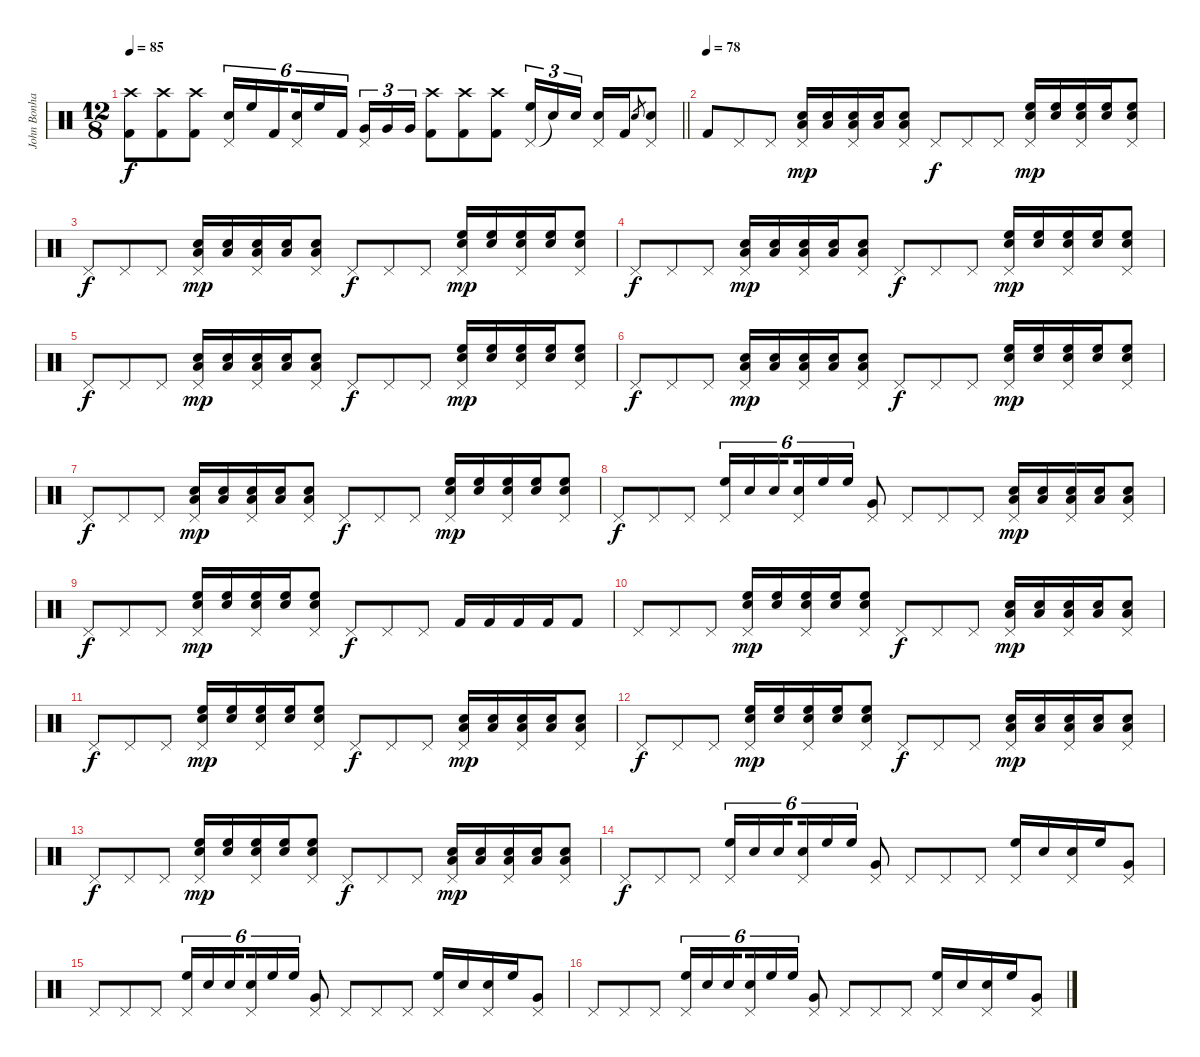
\track ("John Bonham - Drums" "John Bonha") {instrument percussion}
\staff {score}
\articulation defaults
\ts (12 8)
\tempo 85
\clef neutral
\barLineRight lightlight
\ks c
("Crash high (hit)" "Kick (hit) 2").8{dy f} ("Crash high (hit)" "Kick (hit) 2").8 ("Crash high (hit)" "Kick (hit) 2").8 ("Pedal Hi-Hat (hit)" "Snare (hit) 2").16{tu (6 4)} "High Floor Tom (hit)".16{tu (6 4)} "Kick (hit) 2".16{tu (6 4) beam splitsecondary} ("Pedal Hi-Hat (hit)" "Snare (hit) 2").16{tu (6 4)} "High Floor Tom (hit)".16{tu (6 4)} "Kick (hit) 2".16{tu (6 4) beam splitsecondary} ("Pedal Hi-Hat (hit)" "Very Low Tom (hit)").16{tu (3 2)} "Very Low Tom (hit)".16{tu (3 2)} "Very Low Tom (hit)".16{tu (3 2)} ("Crash high (hit)" "Kick (hit) 2").8 ("Crash high (hit)" "Kick (hit) 2").8 ("Crash high (hit)" "Kick (hit) 2").8 ("Pedal Hi-Hat (hit)" "High Floor Tom (hit)").16{tu (3 2)} "Snare (hit)"{t}.16{tu (3 2)} "Snare (hit) 2".16{tu (3 2) beam splitsecondary} ("Pedal Hi-Hat (hit)" "Snare (hit) 2").16 "Kick (hit) 2".16 "Snare (hit) 2".8{gr} ("Pedal Hi-Hat (hit)" "Snare (hit) 2").8 |
\tempo (78)
"Kick (hit) 2".8{volume 10} "Pedal Hi-Hat (hit)".8 "Pedal Hi-Hat (hit)".8 ("Pedal Hi-Hat (hit)" "Low Floor Tom (hit)" "Snare (hit) 2").16{dy mp} ("Low Floor Tom (hit)" "Snare (hit) 2").16 ("Pedal Hi-Hat (hit)" "Low Floor Tom (hit)" "Snare (hit) 2").16 ("Low Floor Tom (hit)" "Snare (hit) 2").16 ("Pedal Hi-Hat (hit)" "Low Floor Tom (hit)" "Snare (hit) 2").8 "Pedal Hi-Hat (hit)".8{dy f} "Pedal Hi-Hat (hit)".8 "Pedal Hi-Hat (hit)".8 ("Pedal Hi-Hat (hit)" "High Floor Tom (hit)" "Snare (hit) 2").16{dy mp} ("High Floor Tom (hit)" "Snare (hit) 2").16 ("Pedal Hi-Hat (hit)" "High Floor Tom (hit)" "Snare (hit) 2").16 ("High Floor Tom (hit)" "Snare (hit) 2").16 ("Pedal Hi-Hat (hit)" "High Floor Tom (hit)" "Snare (hit) 2").8 |
"Pedal Hi-Hat (hit)".8{dy f} "Pedal Hi-Hat (hit)".8 "Pedal Hi-Hat (hit)".8 ("Pedal Hi-Hat (hit)" "Low Floor Tom (hit)" "Snare (hit) 2").16{dy mp} ("Low Floor Tom (hit)" "Snare (hit) 2").16 ("Pedal Hi-Hat (hit)" "Low Floor Tom (hit)" "Snare (hit) 2").16 ("Low Floor Tom (hit)" "Snare (hit) 2").16 ("Pedal Hi-Hat (hit)" "Low Floor Tom (hit)" "Snare (hit) 2").8 "Pedal Hi-Hat (hit)".8{dy f} "Pedal Hi-Hat (hit)".8 "Pedal Hi-Hat (hit)".8 ("Pedal Hi-Hat (hit)" "High Floor Tom (hit)" "Snare (hit) 2").16{dy mp} ("High Floor Tom (hit)" "Snare (hit) 2").16 ("Pedal Hi-Hat (hit)" "High Floor Tom (hit)" "Snare (hit) 2").16 ("High Floor Tom (hit)" "Snare (hit) 2").16 ("Pedal Hi-Hat (hit)" "High Floor Tom (hit)" "Snare (hit) 2").8 |
"Pedal Hi-Hat (hit)".8{dy f} "Pedal Hi-Hat (hit)".8 "Pedal Hi-Hat (hit)".8 ("Pedal Hi-Hat (hit)" "Low Floor Tom (hit)" "Snare (hit) 2").16{dy mp} ("Low Floor Tom (hit)" "Snare (hit) 2").16 ("Pedal Hi-Hat (hit)" "Low Floor Tom (hit)" "Snare (hit) 2").16 ("Low Floor Tom (hit)" "Snare (hit) 2").16 ("Pedal Hi-Hat (hit)" "Low Floor Tom (hit)" "Snare (hit) 2").8 "Pedal Hi-Hat (hit)".8{dy f} "Pedal Hi-Hat (hit)".8 "Pedal Hi-Hat (hit)".8 ("Pedal Hi-Hat (hit)" "High Floor Tom (hit)" "Snare (hit) 2").16{dy mp} ("High Floor Tom (hit)" "Snare (hit) 2").16 ("Pedal Hi-Hat (hit)" "High Floor Tom (hit)" "Snare (hit) 2").16 ("High Floor Tom (hit)" "Snare (hit) 2").16 ("Pedal Hi-Hat (hit)" "High Floor Tom (hit)" "Snare (hit) 2").8 |
"Pedal Hi-Hat (hit)".8{dy f} "Pedal Hi-Hat (hit)".8 "Pedal Hi-Hat (hit)".8 ("Pedal Hi-Hat (hit)" "Low Floor Tom (hit)" "Snare (hit) 2").16{dy mp} ("Low Floor Tom (hit)" "Snare (hit) 2").16 ("Pedal Hi-Hat (hit)" "Low Floor Tom (hit)" "Snare (hit) 2").16 ("Low Floor Tom (hit)" "Snare (hit) 2").16 ("Pedal Hi-Hat (hit)" "Low Floor Tom (hit)" "Snare (hit) 2").8 "Pedal Hi-Hat (hit)".8{dy f} "Pedal Hi-Hat (hit)".8 "Pedal Hi-Hat (hit)".8 ("Pedal Hi-Hat (hit)" "High Floor Tom (hit)" "Snare (hit) 2").16{dy mp} ("High Floor Tom (hit)" "Snare (hit) 2").16 ("Pedal Hi-Hat (hit)" "High Floor Tom (hit)" "Snare (hit) 2").16 ("High Floor Tom (hit)" "Snare (hit) 2").16 ("Pedal Hi-Hat (hit)" "High Floor Tom (hit)" "Snare (hit) 2").8 |
"Pedal Hi-Hat (hit)".8{dy f} "Pedal Hi-Hat (hit)".8 "Pedal Hi-Hat (hit)".8 ("Pedal Hi-Hat (hit)" "Low Floor Tom (hit)" "Snare (hit) 2").16{dy mp} ("Low Floor Tom (hit)" "Snare (hit) 2").16 ("Pedal Hi-Hat (hit)" "Low Floor Tom (hit)" "Snare (hit) 2").16 ("Low Floor Tom (hit)" "Snare (hit) 2").16 ("Pedal Hi-Hat (hit)" "Low Floor Tom (hit)" "Snare (hit) 2").8 "Pedal Hi-Hat (hit)".8{dy f} "Pedal Hi-Hat (hit)".8 "Pedal Hi-Hat (hit)".8 ("Pedal Hi-Hat (hit)" "High Floor Tom (hit)" "Snare (hit) 2").16{dy mp} ("High Floor Tom (hit)" "Snare (hit) 2").16 ("Pedal Hi-Hat (hit)" "High Floor Tom (hit)" "Snare (hit) 2").16 ("High Floor Tom (hit)" "Snare (hit) 2").16 ("Pedal Hi-Hat (hit)" "High Floor Tom (hit)" "Snare (hit) 2").8 |
"Pedal Hi-Hat (hit)".8{dy f} "Pedal Hi-Hat (hit)".8 "Pedal Hi-Hat (hit)".8 ("Pedal Hi-Hat (hit)" "Low Floor Tom (hit)" "Snare (hit) 2").16{dy mp} ("Low Floor Tom (hit)" "Snare (hit) 2").16 ("Pedal Hi-Hat (hit)" "Low Floor Tom (hit)" "Snare (hit) 2").16 ("Low Floor Tom (hit)" "Snare (hit) 2").16 ("Pedal Hi-Hat (hit)" "Low Floor Tom (hit)" "Snare (hit) 2").8 "Pedal Hi-Hat (hit)".8{dy f} "Pedal Hi-Hat (hit)".8 "Pedal Hi-Hat (hit)".8 ("Pedal Hi-Hat (hit)" "High Floor Tom (hit)" "Snare (hit) 2").16{dy mp} ("High Floor Tom (hit)" "Snare (hit) 2").16 ("Pedal Hi-Hat (hit)" "High Floor Tom (hit)" "Snare (hit) 2").16 ("High Floor Tom (hit)" "Snare (hit) 2").16 ("Pedal Hi-Hat (hit)" "High Floor Tom (hit)" "Snare (hit) 2").8 |
"Pedal Hi-Hat (hit)".8{dy f} "Pedal Hi-Hat (hit)".8 "Pedal Hi-Hat (hit)".8 ("Pedal Hi-Hat (hit)" "High Floor Tom (hit)").16{tu (6 4)} "Snare (hit) 2".16{tu (6 4)} "Snare (hit) 2".16{tu (6 4) beam splitsecondary} ("Pedal Hi-Hat (hit)" "Snare (hit) 2").16{tu (6 4)} "High Floor Tom (hit)".16{tu (6 4)} "High Floor Tom (hit)".16{tu (6 4)} ("Pedal Hi-Hat (hit)" "Very Low Tom (hit)").8 "Pedal Hi-Hat (hit)".8 "Pedal Hi-Hat (hit)".8 "Pedal Hi-Hat (hit)".8 ("Pedal Hi-Hat (hit)" "Low Floor Tom (hit)" "Snare (hit) 2").16{dy mp} ("Low Floor Tom (hit)" "Snare (hit) 2").16 ("Pedal Hi-Hat (hit)" "Low Floor Tom (hit)" "Snare (hit) 2").16 ("Low Floor Tom (hit)" "Snare (hit) 2").16 ("Pedal Hi-Hat (hit)" "Low Floor Tom (hit)" "Snare (hit) 2").8 |
"Pedal Hi-Hat (hit)".8{dy f} "Pedal Hi-Hat (hit)".8 "Pedal Hi-Hat (hit)".8 ("Pedal Hi-Hat (hit)" "High Floor Tom (hit)" "Snare (hit) 2").16{dy mp} ("High Floor Tom (hit)" "Snare (hit) 2").16 ("Pedal Hi-Hat (hit)" "High Floor Tom (hit)" "Snare (hit) 2").16 ("High Floor Tom (hit)" "Snare (hit) 2").16 ("Pedal Hi-Hat (hit)" "High Floor Tom (hit)" "Snare (hit) 2").8 "Pedal Hi-Hat (hit)".8{dy f} "Pedal Hi-Hat (hit)".8 "Pedal Hi-Hat (hit)".8 "Kick (hit) 2".16 "Kick (hit) 2".16 "Kick (hit) 2".16 "Kick (hit) 2".16 "Kick (hit) 2".8 |
"Pedal Hi-Hat (hit)".8 "Pedal Hi-Hat (hit)".8 "Pedal Hi-Hat (hit)".8 ("Pedal Hi-Hat (hit)" "High Floor Tom (hit)" "Snare (hit) 2").16{dy mp} ("High Floor Tom (hit)" "Snare (hit) 2").16 ("Pedal Hi-Hat (hit)" "High Floor Tom (hit)" "Snare (hit) 2").16 ("High Floor Tom (hit)" "Snare (hit) 2").16 ("Pedal Hi-Hat (hit)" "High Floor Tom (hit)" "Snare (hit) 2").8 "Pedal Hi-Hat (hit)".8{dy f} "Pedal Hi-Hat (hit)".8 "Pedal Hi-Hat (hit)".8 ("Pedal Hi-Hat (hit)" "Low Floor Tom (hit)" "Snare (hit) 2").16{dy mp} ("Low Floor Tom (hit)" "Snare (hit) 2").16 ("Pedal Hi-Hat (hit)" "Low Floor Tom (hit)" "Snare (hit) 2").16 ("Low Floor Tom (hit)" "Snare (hit) 2").16 ("Pedal Hi-Hat (hit)" "Low Floor Tom (hit)" "Snare (hit) 2").8 |
"Pedal Hi-Hat (hit)".8{dy f} "Pedal Hi-Hat (hit)".8 "Pedal Hi-Hat (hit)".8 ("Pedal Hi-Hat (hit)" "High Floor Tom (hit)" "Snare (hit) 2").16{dy mp} ("High Floor Tom (hit)" "Snare (hit) 2").16 ("Pedal Hi-Hat (hit)" "High Floor Tom (hit)" "Snare (hit) 2").16 ("High Floor Tom (hit)" "Snare (hit) 2").16 ("Pedal Hi-Hat (hit)" "High Floor Tom (hit)" "Snare (hit) 2").8 "Pedal Hi-Hat (hit)".8{dy f} "Pedal Hi-Hat (hit)".8 "Pedal Hi-Hat (hit)".8 ("Pedal Hi-Hat (hit)" "Low Floor Tom (hit)" "Snare (hit) 2").16{dy mp} ("Low Floor Tom (hit)" "Snare (hit) 2").16 ("Pedal Hi-Hat (hit)" "Low Floor Tom (hit)" "Snare (hit) 2").16 ("Low Floor Tom (hit)" "Snare (hit) 2").16 ("Pedal Hi-Hat (hit)" "Low Floor Tom (hit)" "Snare (hit) 2").8 |
"Pedal Hi-Hat (hit)".8{dy f} "Pedal Hi-Hat (hit)".8 "Pedal Hi-Hat (hit)".8 ("Pedal Hi-Hat (hit)" "High Floor Tom (hit)" "Snare (hit) 2").16{dy mp} ("High Floor Tom (hit)" "Snare (hit) 2").16 ("Pedal Hi-Hat (hit)" "High Floor Tom (hit)" "Snare (hit) 2").16 ("High Floor Tom (hit)" "Snare (hit) 2").16 ("Pedal Hi-Hat (hit)" "High Floor Tom (hit)" "Snare (hit) 2").8 "Pedal Hi-Hat (hit)".8{dy f} "Pedal Hi-Hat (hit)".8 "Pedal Hi-Hat (hit)".8 ("Pedal Hi-Hat (hit)" "Low Floor Tom (hit)" "Snare (hit) 2").16{dy mp} ("Low Floor Tom (hit)" "Snare (hit) 2").16 ("Pedal Hi-Hat (hit)" "Low Floor Tom (hit)" "Snare (hit) 2").16 ("Low Floor Tom (hit)" "Snare (hit) 2").16 ("Pedal Hi-Hat (hit)" "Low Floor Tom (hit)" "Snare (hit) 2").8 |
"Pedal Hi-Hat (hit)".8{dy f} "Pedal Hi-Hat (hit)".8 "Pedal Hi-Hat (hit)".8 ("Pedal Hi-Hat (hit)" "High Floor Tom (hit)" "Snare (hit) 2").16{dy mp} ("High Floor Tom (hit)" "Snare (hit) 2").16 ("Pedal Hi-Hat (hit)" "High Floor Tom (hit)" "Snare (hit) 2").16 ("High Floor Tom (hit)" "Snare (hit) 2").16 ("Pedal Hi-Hat (hit)" "High Floor Tom (hit)" "Snare (hit) 2").8 "Pedal Hi-Hat (hit)".8{dy f} "Pedal Hi-Hat (hit)".8 "Pedal Hi-Hat (hit)".8 ("Pedal Hi-Hat (hit)" "Low Floor Tom (hit)" "Snare (hit) 2").16{dy mp} ("Low Floor Tom (hit)" "Snare (hit) 2").16 ("Pedal Hi-Hat (hit)" "Low Floor Tom (hit)" "Snare (hit) 2").16 ("Low Floor Tom (hit)" "Snare (hit) 2").16 ("Pedal Hi-Hat (hit)" "Low Floor Tom (hit)" "Snare (hit) 2").8 |
"Pedal Hi-Hat (hit)".8{dy f} "Pedal Hi-Hat (hit)".8 "Pedal Hi-Hat (hit)".8 ("Pedal Hi-Hat (hit)" "High Floor Tom (hit)").16{tu (6 4)} "Snare (hit) 2".16{tu (6 4)} "Snare (hit) 2".16{tu (6 4) beam splitsecondary} ("Pedal Hi-Hat (hit)" "Snare (hit) 2").16{tu (6 4)} "High Floor Tom (hit)".16{tu (6 4)} "High Floor Tom (hit)".16{tu (6 4)} ("Pedal Hi-Hat (hit)" "Very Low Tom (hit)").8 "Pedal Hi-Hat (hit)".8 "Pedal Hi-Hat (hit)".8 "Pedal Hi-Hat (hit)".8 ("Pedal Hi-Hat (hit)" "High Floor Tom (hit)").16 "Snare (hit) 2".16 ("Pedal Hi-Hat (hit)" "Snare (hit) 2").16 "High Floor Tom (hit)".16 ("Pedal Hi-Hat (hit)" "Very Low Tom (hit)").8 |
"Pedal Hi-Hat (hit)".8 "Pedal Hi-Hat (hit)".8 "Pedal Hi-Hat (hit)".8 ("Pedal Hi-Hat (hit)" "High Floor Tom (hit)").16{tu (6 4)} "Snare (hit) 2".16{tu (6 4)} "Snare (hit) 2".16{tu (6 4) beam splitsecondary} ("Pedal Hi-Hat (hit)" "Snare (hit) 2").16{tu (6 4)} "High Floor Tom (hit)".16{tu (6 4)} "High Floor Tom (hit)".16{tu (6 4)} ("Pedal Hi-Hat (hit)" "Very Low Tom (hit)").8 "Pedal Hi-Hat (hit)".8 "Pedal Hi-Hat (hit)".8 "Pedal Hi-Hat (hit)".8 ("Pedal Hi-Hat (hit)" "High Floor Tom (hit)").16 "Snare (hit) 2".16 ("Pedal Hi-Hat (hit)" "Snare (hit) 2").16 "High Floor Tom (hit)".16 ("Pedal Hi-Hat (hit)" "Very Low Tom (hit)").8 |
"Pedal Hi-Hat (hit)".8 "Pedal Hi-Hat (hit)".8 "Pedal Hi-Hat (hit)".8 ("Pedal Hi-Hat (hit)" "High Floor Tom (hit)").16{tu (6 4)} "Snare (hit) 2".16{tu (6 4)} "Snare (hit) 2".16{tu (6 4) beam splitsecondary} ("Pedal Hi-Hat (hit)" "Snare (hit) 2").16{tu (6 4)} "High Floor Tom (hit)".16{tu (6 4)} "High Floor Tom (hit)".16{tu (6 4)} ("Pedal Hi-Hat (hit)" "Very Low Tom (hit)").8 "Pedal Hi-Hat (hit)".8 "Pedal Hi-Hat (hit)".8 "Pedal Hi-Hat (hit)".8 ("Pedal Hi-Hat (hit)" "High Floor Tom (hit)").16 "Snare (hit) 2".16 ("Pedal Hi-Hat (hit)" "Snare (hit) 2").16 "High Floor Tom (hit)".16 ("Pedal Hi-Hat (hit)" "Very Low Tom (hit)").8
